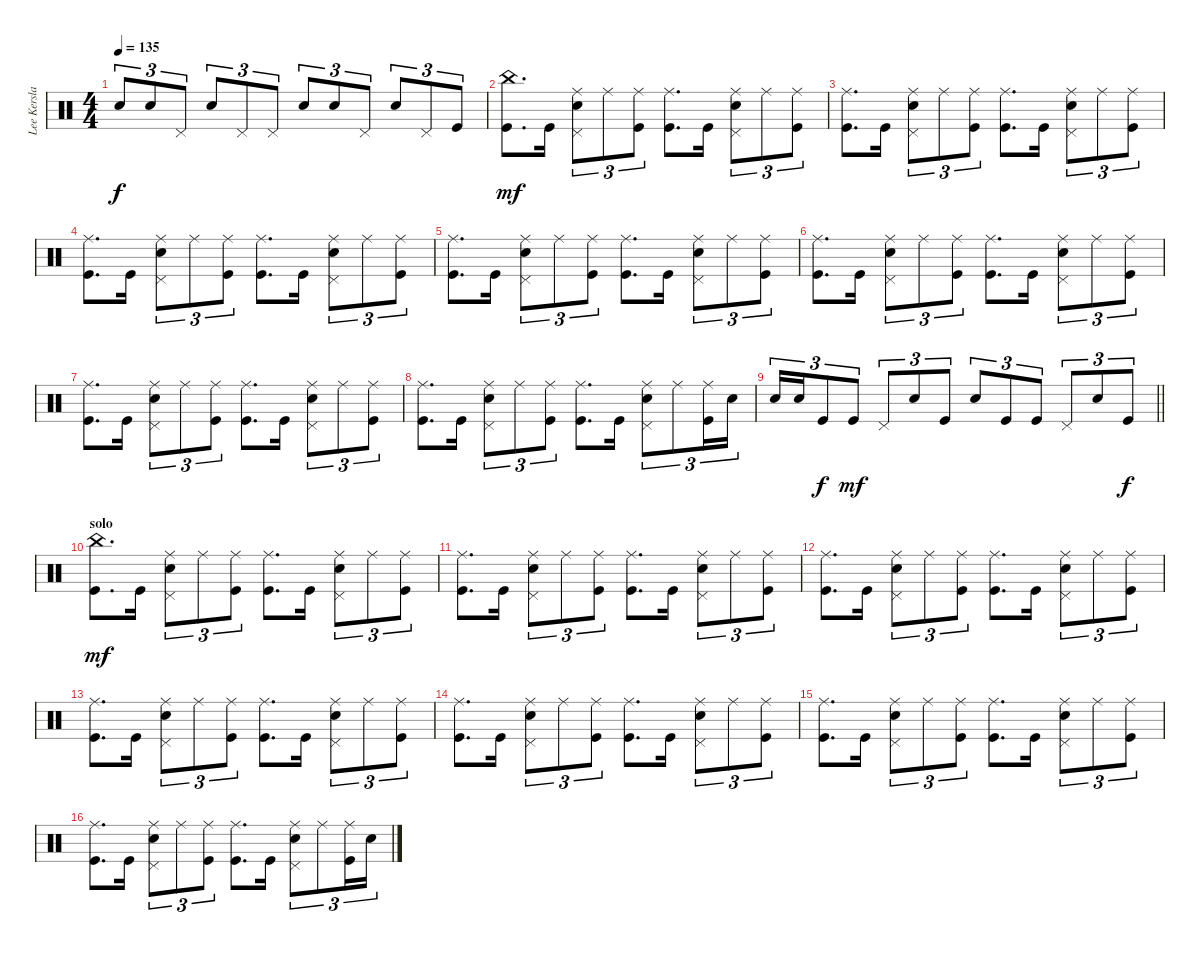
\track ("Lee Kerslake (drums)" "Lee Kersla") {instrument percussion}
\staff {score}
\articulation defaults
\ts (4 4)
\tempo 135
\clef neutral
\ks c "Snare (hit) 2".8{tu (3 2) dy f} "Snare (hit) 2".8{tu (3 2)} "Pedal Hi-Hat (hit)".8{tu (3 2)} "Snare (hit) 2".8{tu (3 2)} "Pedal Hi-Hat (hit)".8{tu (3 2)} "Pedal Hi-Hat (hit)".8{tu (3 2)} "Snare (hit) 2".8{tu (3 2)} "Snare (hit) 2".8{tu (3 2)} "Pedal Hi-Hat (hit)".8{tu (3 2)} "Snare (hit) 2".8{tu (3 2)} "Pedal Hi-Hat (hit)".8{tu (3 2)} "Kick (hit)".8{tu (3 2)}
|
("China (hit)" "Kick (hit)").8{d dy mf} "Kick (hit)".16 ("Ride (middle)" "Pedal Hi-Hat (hit)" "Snare (hit) 2").8{tu (3 2)} "Ride (middle)".8{tu (3 2)} ("Ride (middle)" "Kick (hit)").8{tu (3 2)} ("Ride (middle)" "Kick (hit)").8{d} "Kick (hit)".16 ("Ride (middle)" "Pedal Hi-Hat (hit)" "Snare (hit) 2").8{tu (3 2)} "Ride (middle)".8{tu (3 2)} ("Ride (middle)" "Kick (hit)").8{tu (3 2)} |
("Ride (middle)" "Kick (hit)").8{d} "Kick (hit)".16 ("Ride (middle)" "Pedal Hi-Hat (hit)" "Snare (hit) 2").8{tu (3 2)} "Ride (middle)".8{tu (3 2)} ("Ride (middle)" "Kick (hit)").8{tu (3 2)} ("Ride (middle)" "Kick (hit)").8{d} "Kick (hit)".16 ("Ride (middle)" "Pedal Hi-Hat (hit)" "Snare (hit) 2").8{tu (3 2)} "Ride (middle)".8{tu (3 2)} ("Ride (middle)" "Kick (hit)").8{tu (3 2)} |
("Ride (middle)" "Kick (hit)").8{d} "Kick (hit)".16 ("Ride (middle)" "Pedal Hi-Hat (hit)" "Snare (hit) 2").8{tu (3 2)} "Ride (middle)".8{tu (3 2)} ("Ride (middle)" "Kick (hit)").8{tu (3 2)} ("Ride (middle)" "Kick (hit)").8{d} "Kick (hit)".16 ("Ride (middle)" "Pedal Hi-Hat (hit)" "Snare (hit) 2").8{tu (3 2)} "Ride (middle)".8{tu (3 2)} ("Ride (middle)" "Kick (hit)").8{tu (3 2)} |
("Ride (middle)" "Kick (hit)").8{d} "Kick (hit)".16 ("Ride (middle)" "Pedal Hi-Hat (hit)" "Snare (hit) 2").8{tu (3 2)} "Ride (middle)".8{tu (3 2)} ("Ride (middle)" "Kick (hit)").8{tu (3 2)} ("Ride (middle)" "Kick (hit)").8{d} "Kick (hit)".16 ("Ride (middle)" "Pedal Hi-Hat (hit)" "Snare (hit) 2").8{tu (3 2)} "Ride (middle)".8{tu (3 2)} ("Ride (middle)" "Kick (hit)").8{tu (3 2)} |
("Ride (middle)" "Kick (hit)").8{d} "Kick (hit)".16 ("Ride (middle)" "Pedal Hi-Hat (hit)" "Snare (hit) 2").8{tu (3 2)} "Ride (middle)".8{tu (3 2)} ("Ride (middle)" "Kick (hit)").8{tu (3 2)} ("Ride (middle)" "Kick (hit)").8{d} "Kick (hit)".16 ("Ride (middle)" "Pedal Hi-Hat (hit)" "Snare (hit) 2").8{tu (3 2)} "Ride (middle)".8{tu (3 2)} ("Ride (middle)" "Kick (hit)").8{tu (3 2)} |
("Ride (middle)" "Kick (hit)").8{d} "Kick (hit)".16 ("Ride (middle)" "Pedal Hi-Hat (hit)" "Snare (hit) 2").8{tu (3 2)} "Ride (middle)".8{tu (3 2)} ("Ride (middle)" "Kick (hit)").8{tu (3 2)} ("Ride (middle)" "Kick (hit)").8{d} "Kick (hit)".16 ("Ride (middle)" "Pedal Hi-Hat (hit)" "Snare (hit) 2").8{tu (3 2)} "Ride (middle)".8{tu (3 2)} ("Ride (middle)" "Kick (hit)").8{tu (3 2)} |
("Ride (middle)" "Kick (hit)").8{d} "Kick (hit)".16 ("Ride (middle)" "Pedal Hi-Hat (hit)" "Snare (hit) 2").8{tu (3 2)} "Ride (middle)".8{tu (3 2)} ("Ride (middle)" "Kick (hit)").8{tu (3 2)} ("Ride (middle)" "Kick (hit)").8{d} "Kick (hit)".16 ("Ride (middle)" "Pedal Hi-Hat (hit)" "Snare (hit) 2").8{tu (3 2)} "Ride (middle)".8{tu (3 2)} ("Ride (middle)" "Kick (hit)").16{tu (3 2)} "Snare (hit) 2".16{tu (3 2)} |
\barLineRight lightlight "Snare (hit) 2".16{tu (3 2)} "Snare (hit) 2".16{tu (3 2)} "Kick (hit)".8{tu (3 2) dy f} "Kick (hit)".8{tu (3 2) dy mf} "Pedal Hi-Hat (hit)".8{tu (3 2)} "Snare (hit) 2".8{tu (3 2)} "Kick (hit)".8{tu (3 2)} "Snare (hit) 2".8{tu (3 2)} "Kick (hit)".8{tu (3 2)} "Kick (hit)".8{tu (3 2)} "Pedal Hi-Hat (hit)".8{tu (3 2)} "Snare (hit) 2".8{tu (3 2)} "Kick (hit)".8{tu (3 2) dy f}
|
\section ("" "solo ")
("China (hit)" "Kick (hit)").8{d dy mf} "Kick (hit)".16 ("Ride (middle)" "Pedal Hi-Hat (hit)" "Snare (hit) 2").8{tu (3 2)} "Ride (middle)".8{tu (3 2)} ("Ride (middle)" "Kick (hit)").8{tu (3 2)} ("Ride (middle)" "Kick (hit)").8{d} "Kick (hit)".16 ("Ride (middle)" "Pedal Hi-Hat (hit)" "Snare (hit) 2").8{tu (3 2)} "Ride (middle)".8{tu (3 2)} ("Ride (middle)" "Kick (hit)").8{tu (3 2)} |
("Ride (middle)" "Kick (hit)").8{d} "Kick (hit)".16 ("Ride (middle)" "Pedal Hi-Hat (hit)" "Snare (hit) 2").8{tu (3 2)} "Ride (middle)".8{tu (3 2)} ("Ride (middle)" "Kick (hit)").8{tu (3 2)} ("Ride (middle)" "Kick (hit)").8{d} "Kick (hit)".16 ("Ride (middle)" "Pedal Hi-Hat (hit)" "Snare (hit) 2").8{tu (3 2)} "Ride (middle)".8{tu (3 2)} ("Ride (middle)" "Kick (hit)").8{tu (3 2)} |
("Ride (middle)" "Kick (hit)").8{d} "Kick (hit)".16 ("Ride (middle)" "Pedal Hi-Hat (hit)" "Snare (hit) 2").8{tu (3 2)} "Ride (middle)".8{tu (3 2)} ("Ride (middle)" "Kick (hit)").8{tu (3 2)} ("Ride (middle)" "Kick (hit)").8{d} "Kick (hit)".16 ("Ride (middle)" "Pedal Hi-Hat (hit)" "Snare (hit) 2").8{tu (3 2)} "Ride (middle)".8{tu (3 2)} ("Ride (middle)" "Kick (hit)").8{tu (3 2)} |
("Ride (middle)" "Kick (hit)").8{d} "Kick (hit)".16 ("Ride (middle)" "Pedal Hi-Hat (hit)" "Snare (hit) 2").8{tu (3 2)} "Ride (middle)".8{tu (3 2)} ("Ride (middle)" "Kick (hit)").8{tu (3 2)} ("Ride (middle)" "Kick (hit)").8{d} "Kick (hit)".16 ("Ride (middle)" "Pedal Hi-Hat (hit)" "Snare (hit) 2").8{tu (3 2)} "Ride (middle)".8{tu (3 2)} ("Ride (middle)" "Kick (hit)").8{tu (3 2)} |
("Ride (middle)" "Kick (hit)").8{d} "Kick (hit)".16 ("Ride (middle)" "Pedal Hi-Hat (hit)" "Snare (hit) 2").8{tu (3 2)} "Ride (middle)".8{tu (3 2)} ("Ride (middle)" "Kick (hit)").8{tu (3 2)} ("Ride (middle)" "Kick (hit)").8{d} "Kick (hit)".16 ("Ride (middle)" "Pedal Hi-Hat (hit)" "Snare (hit) 2").8{tu (3 2)} "Ride (middle)".8{tu (3 2)} ("Ride (middle)" "Kick (hit)").8{tu (3 2)} |
("Ride (middle)" "Kick (hit)").8{d} "Kick (hit)".16 ("Ride (middle)" "Pedal Hi-Hat (hit)" "Snare (hit) 2").8{tu (3 2)} "Ride (middle)".8{tu (3 2)} ("Ride (middle)" "Kick (hit)").8{tu (3 2)} ("Ride (middle)" "Kick (hit)").8{d} "Kick (hit)".16 ("Ride (middle)" "Pedal Hi-Hat (hit)" "Snare (hit) 2").8{tu (3 2)} "Ride (middle)".8{tu (3 2)} ("Ride (middle)" "Kick (hit)").8{tu (3 2)} |
("Ride (middle)" "Kick (hit)").8{d} "Kick (hit)".16 ("Ride (middle)" "Pedal Hi-Hat (hit)" "Snare (hit) 2").8{tu (3 2)} "Ride (middle)".8{tu (3 2)} ("Ride (middle)" "Kick (hit)").8{tu (3 2)} ("Ride (middle)" "Kick (hit)").8{d} "Kick (hit)".16 ("Ride (middle)" "Pedal Hi-Hat (hit)" "Snare (hit) 2").8{tu (3 2)} "Ride (middle)".8{tu (3 2)} ("Ride (middle)" "Kick (hit)").16{tu (3 2)} "Snare (hit) 2".16{tu (3 2)}
